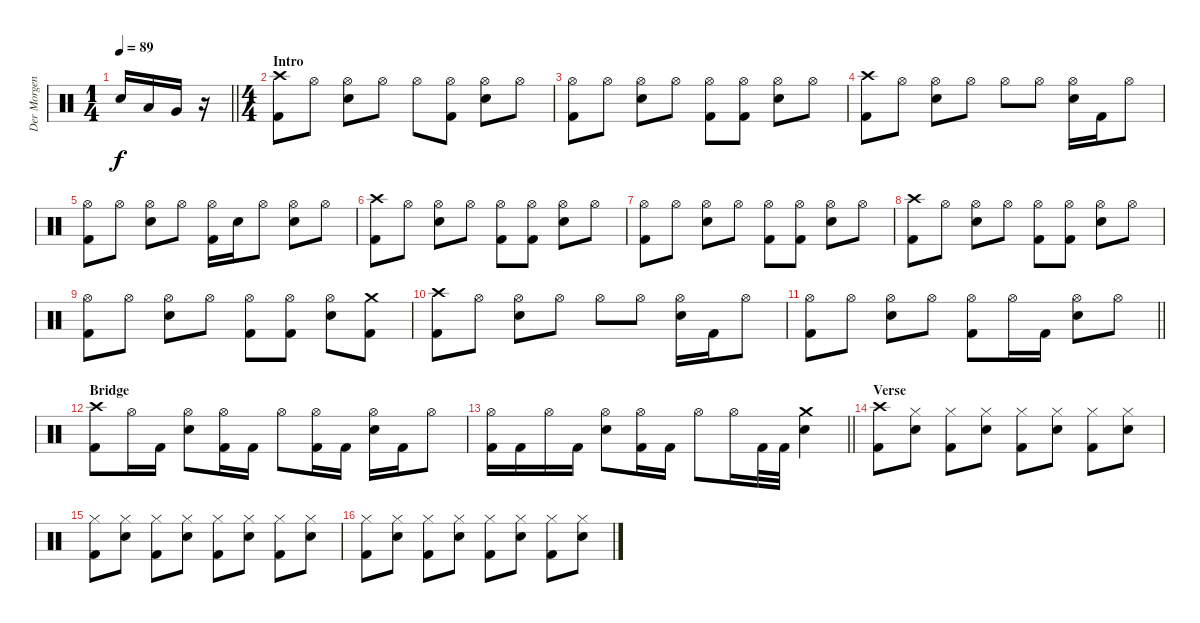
\track ("Der Morgenstern" "Der Morgen") {instrument percussion}
\staff {score}
\articulation defaults
\ts (1 4)
\tempo 89
\clef neutral
\barLineRight lightlight
\ks c "Electric Snare (hit)".16{dy f} "Low Tom (hit)".16 "Very Low Tom (hit)".16
r.16 |
\ts (4 4)
\section ("" "Intro")
("Crash high (hit)" "Kick (hit) 2").8 "Hi-Hat (open)".8 ("Hi-Hat (open)" "Electric Snare (hit)").8 "Hi-Hat (open)".8 "Hi-Hat (open)".8 ("Hi-Hat (open)" "Kick (hit) 2").8 ("Hi-Hat (open)" "Electric Snare (hit)").8 "Hi-Hat (open)".8 |
("Hi-Hat (open)" "Kick (hit) 2").8 "Hi-Hat (open)".8 ("Hi-Hat (open)" "Electric Snare (hit)").8 "Hi-Hat (open)".8 ("Hi-Hat (open)" "Kick (hit) 2").8 ("Hi-Hat (open)" "Kick (hit) 2").8 ("Hi-Hat (open)" "Electric Snare (hit)").8 "Hi-Hat (open)".8 |
("Crash high (hit)" "Kick (hit) 2").8 "Hi-Hat (open)".8 ("Hi-Hat (open)" "Electric Snare (hit)").8 "Hi-Hat (open)".8 "Hi-Hat (open)".8 "Hi-Hat (open)".8 ("Hi-Hat (open)" "Electric Snare (hit)").16 "Kick (hit) 2".16 "Hi-Hat (open)".8 |
("Hi-Hat (open)" "Kick (hit) 2").8 "Hi-Hat (open)".8 ("Hi-Hat (open)" "Electric Snare (hit)").8 "Hi-Hat (open)".8 ("Hi-Hat (open)" "Kick (hit) 2").16 "Electric Snare (hit)".16 "Hi-Hat (open)".8 ("Hi-Hat (open)" "Electric Snare (hit)").8 "Hi-Hat (open)".8 |
("Crash high (hit)" "Kick (hit) 2").8 "Hi-Hat (open)".8 ("Hi-Hat (open)" "Electric Snare (hit)").8 "Hi-Hat (open)".8 ("Hi-Hat (open)" "Kick (hit) 2").8 ("Hi-Hat (open)" "Kick (hit) 2").8 ("Hi-Hat (open)" "Electric Snare (hit)").8 "Hi-Hat (open)".8 |
("Hi-Hat (open)" "Kick (hit) 2").8 "Hi-Hat (open)".8 ("Hi-Hat (open)" "Electric Snare (hit)").8 "Hi-Hat (open)".8 ("Hi-Hat (open)" "Kick (hit) 2").8 ("Hi-Hat (open)" "Kick (hit) 2").8 ("Hi-Hat (open)" "Electric Snare (hit)").8 "Hi-Hat (open)".8 |
("Crash high (hit)" "Kick (hit) 2").8 "Hi-Hat (open)".8 ("Hi-Hat (open)" "Electric Snare (hit)").8 "Hi-Hat (open)".8 ("Hi-Hat (open)" "Kick (hit) 2").8 ("Hi-Hat (open)" "Kick (hit) 2").8 ("Hi-Hat (open)" "Electric Snare (hit)").8 "Hi-Hat (open)".8 |
("Hi-Hat (open)" "Kick (hit) 2").8 "Hi-Hat (open)".8 ("Hi-Hat (open)" "Electric Snare (hit)").8 "Hi-Hat (open)".8 ("Hi-Hat (open)" "Kick (hit) 2").8 ("Hi-Hat (open)" "Kick (hit) 2").8 ("Hi-Hat (open)" "Electric Snare (hit)").8 ("Crash medium (hit)" "Kick (hit) 2").8 |
("Crash high (hit)" "Kick (hit) 2").8 "Hi-Hat (open)".8 ("Hi-Hat (open)" "Electric Snare (hit)").8 "Hi-Hat (open)".8 "Hi-Hat (open)".8 "Hi-Hat (open)".8 ("Hi-Hat (open)" "Electric Snare (hit)").16 "Kick (hit) 2".16 "Hi-Hat (open)".8 |
\barLineRight lightlight
("Hi-Hat (open)" "Kick (hit) 2").8 "Hi-Hat (open)".8 ("Hi-Hat (open)" "Electric Snare (hit)").8 "Hi-Hat (open)".8 ("Hi-Hat (open)" "Kick (hit) 2").8 "Hi-Hat (open)".16 "Kick (hit) 2".16 ("Hi-Hat (open)" "Electric Snare (hit)").8 "Hi-Hat (open)".8 |
\section ("" "Bridge")
("Crash high (hit)" "Kick (hit) 2").8 "Hi-Hat (open)".16 "Kick (hit) 2".16 ("Hi-Hat (open)" "Electric Snare (hit)").8 ("Hi-Hat (open)" "Kick (hit) 2").16 "Kick (hit) 2".16 "Hi-Hat (open)".8 ("Hi-Hat (open)" "Kick (hit) 2").16 "Kick (hit) 2".16 ("Hi-Hat (open)" "Electric Snare (hit)").16 "Kick (hit) 2".16 "Hi-Hat (open)".8 |
\barLineRight lightlight
("Hi-Hat (open)" "Kick (hit) 2").16 "Kick (hit) 2".16 "Hi-Hat (open)".16 "Kick (hit) 2".16 ("Hi-Hat (open)" "Electric Snare (hit)").8 ("Hi-Hat (open)" "Kick (hit) 2").16 "Kick (hit) 2".16 "Hi-Hat (open)".8 "Hi-Hat (open)".16 "Kick (hit) 2".32 "Kick (hit) 2".32 ("Crash medium (hit)" "Electric Snare (hit)").4 |
\section ("" "Verse")
("Crash high (hit)" "Kick (hit) 2").8 ("Hi-Hat (closed)" "Electric Snare (hit)").8 ("Hi-Hat (closed)" "Kick (hit) 2").8 ("Hi-Hat (closed)" "Electric Snare (hit)").8 ("Hi-Hat (closed)" "Kick (hit) 2").8 ("Hi-Hat (closed)" "Electric Snare (hit)").8 ("Hi-Hat (closed)" "Kick (hit) 2").8 ("Hi-Hat (closed)" "Electric Snare (hit)").8 |
("Hi-Hat (closed)" "Kick (hit) 2").8 ("Hi-Hat (closed)" "Electric Snare (hit)").8 ("Hi-Hat (closed)" "Kick (hit) 2").8 ("Hi-Hat (closed)" "Electric Snare (hit)").8 ("Hi-Hat (closed)" "Kick (hit) 2").8 ("Hi-Hat (closed)" "Electric Snare (hit)").8 ("Hi-Hat (closed)" "Kick (hit) 2").8 ("Hi-Hat (closed)" "Electric Snare (hit)").8 |
("Hi-Hat (closed)" "Kick (hit) 2").8 ("Hi-Hat (closed)" "Electric Snare (hit)").8 ("Hi-Hat (closed)" "Kick (hit) 2").8 ("Hi-Hat (closed)" "Electric Snare (hit)").8 ("Hi-Hat (closed)" "Kick (hit) 2").8 ("Hi-Hat (closed)" "Electric Snare (hit)").8 ("Hi-Hat (closed)" "Kick (hit) 2").8 ("Hi-Hat (closed)" "Electric Snare (hit)").8
